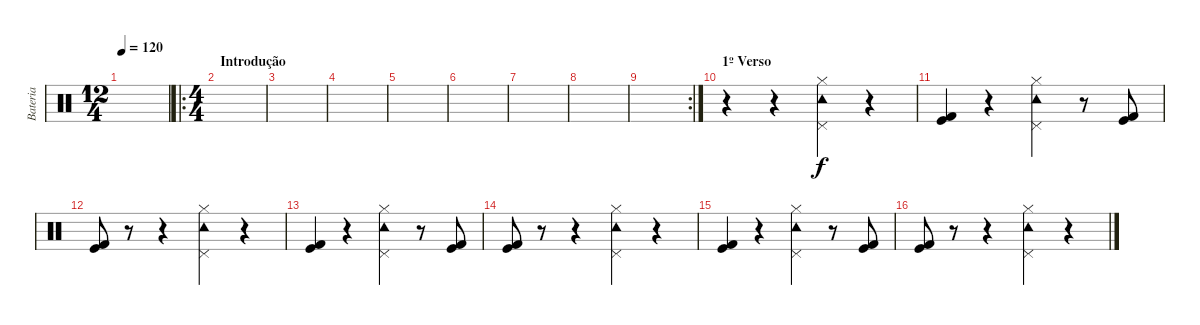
\track ("Bateria" "Bateria") {instrument percussion}
\staff {score}
\articulation defaults
\ts (12 4)
\tempo 120
\clef neutral
\ks c
|
\ro
\ts (4 4)
\section ("" "Introdução")
|
|
|
|
|
|
|
\rc 2
|
\section ("" "1º Verso")
r.4 r.4 ("Tambourine (hit)" "Pedal Hi-Hat (hit)" "Hi-Hat (closed)").4 r.4 |
("Kick (hit) 2" "Kick (hit)").4 r.4 ("Tambourine (hit)" "Pedal Hi-Hat (hit)" "Hi-Hat (closed)").4 r.8 ("Kick (hit)" "Kick (hit) 2").8 |
("Kick (hit)" "Kick (hit) 2").8 r.8 r.4 ("Tambourine (hit)" "Pedal Hi-Hat (hit)" "Hi-Hat (closed)").4 r.4 |
("Kick (hit) 2" "Kick (hit)").4 r.4 ("Tambourine (hit)" "Pedal Hi-Hat (hit)" "Hi-Hat (closed)").4 r.8 ("Kick (hit)" "Kick (hit) 2").8 |
("Kick (hit)" "Kick (hit) 2").8 r.8 r.4 ("Tambourine (hit)" "Pedal Hi-Hat (hit)" "Hi-Hat (closed)").4 r.4 |
("Kick (hit) 2" "Kick (hit)").4 r.4 ("Tambourine (hit)" "Pedal Hi-Hat (hit)" "Hi-Hat (closed)").4 r.8 ("Kick (hit)" "Kick (hit) 2").8 |
("Kick (hit)" "Kick (hit) 2").8 r.8 r.4 ("Tambourine (hit)" "Pedal Hi-Hat (hit)" "Hi-Hat (closed)").4 r.4
